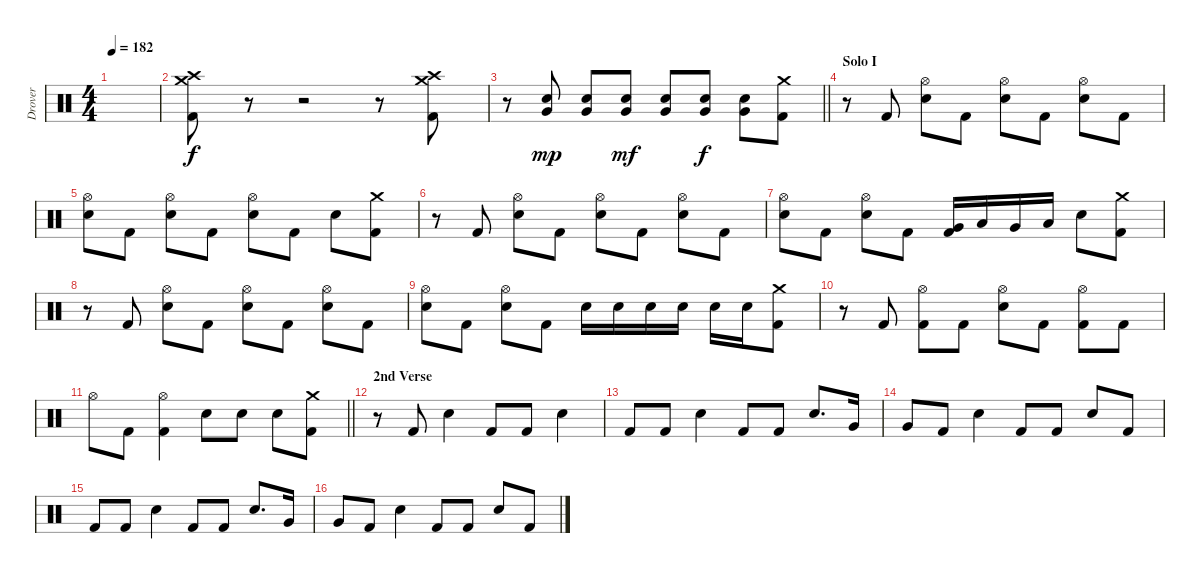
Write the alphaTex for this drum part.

\track ("Drover" "Drover") {instrument percussion}
\staff {score}
\articulation defaults
\ts (4 4)
\tempo 182
\clef neutral
\ks c
|
("Crash medium (hit)" "Crash high (hit)" "Kick (hit) 2").8 r.8 r.2 r.8 ("Crash medium (hit)" "Crash high (hit)" "Kick (hit) 2").8 |
\barLineRight lightlight
r.8 ("Very Low Tom (hit)" "Snare (hit) 2").8{dy mp} ("Very Low Tom (hit)" "Snare (hit) 2").8 ("Very Low Tom (hit)" "Snare (hit) 2").8{dy mf} ("Very Low Tom (hit)" "Snare (hit) 2").8 ("Very Low Tom (hit)" "Snare (hit) 2").8{dy f} ("Very Low Tom (hit)" "Snare (hit) 2").8 ("Crash medium (hit)" "Kick (hit) 2").8 |
\section ("" "Solo I")
r.8 "Kick (hit) 2".8 ("Hi-Hat (open)" "Snare (hit) 2").8 "Kick (hit) 2".8 ("Hi-Hat (open)" "Snare (hit) 2").8 "Kick (hit) 2".8 ("Hi-Hat (open)" "Snare (hit) 2").8 "Kick (hit) 2".8 |
("Hi-Hat (open)" "Snare (hit) 2").8 "Kick (hit) 2".8 ("Hi-Hat (open)" "Snare (hit) 2").8 "Kick (hit) 2".8 ("Hi-Hat (open)" "Snare (hit) 2").8 "Kick (hit) 2".8 "Snare (hit) 2".8 ("Crash medium (hit)" "Kick (hit) 2").8 |
r.8 "Kick (hit) 2".8 ("Hi-Hat (open)" "Snare (hit) 2").8 "Kick (hit) 2".8 ("Hi-Hat (open)" "Snare (hit) 2").8 "Kick (hit) 2".8 ("Hi-Hat (open)" "Snare (hit) 2").8 "Kick (hit) 2".8 |
("Hi-Hat (open)" "Snare (hit) 2").8 "Kick (hit) 2".8 ("Hi-Hat (open)" "Snare (hit) 2").8 "Kick (hit) 2".8 ("Very Low Tom (hit)" "Kick (hit) 2").16 "Low Tom (hit)".16 "Very Low Tom (hit)".16 "Low Tom (hit)".16 "Snare (hit) 2".8 ("Crash medium (hit)" "Kick (hit) 2").8 |
r.8 "Kick (hit) 2".8 ("Hi-Hat (open)" "Snare (hit) 2").8 "Kick (hit) 2".8 ("Hi-Hat (open)" "Snare (hit) 2").8 "Kick (hit) 2".8 ("Hi-Hat (open)" "Snare (hit) 2").8 "Kick (hit) 2".8 |
("Hi-Hat (open)" "Snare (hit) 2").8 "Kick (hit) 2".8 ("Hi-Hat (open)" "Snare (hit) 2").8 "Kick (hit) 2".8 "Snare (hit) 2".16 "Snare (hit) 2".16 "Snare (hit) 2".16 "Snare (hit) 2".16 "Snare (hit) 2".16 "Snare (hit) 2".16 ("Crash medium (hit)" "Kick (hit) 2").8 |
r.8 "Kick (hit) 2".8 ("Hi-Hat (open)" "Kick (hit) 2").8 "Kick (hit) 2".8 ("Hi-Hat (open)" "Snare (hit) 2").8 "Kick (hit) 2".8 ("Hi-Hat (open)" "Kick (hit) 2").8 "Kick (hit) 2".8 |
\barLineRight lightlight "Hi-Hat (open)".8 "Kick (hit) 2".8
("Hi-Hat (open)" "Kick (hit) 2").4 "Snare (hit) 2".8 "Snare (hit) 2".8 "Snare (hit) 2".8 ("Crash medium (hit)" "Kick (hit) 2").8 |
\section ("" "2nd Verse")
r.8 "Kick (hit) 2".8 "Snare (hit) 2".4 "Kick (hit) 2".8 "Kick (hit) 2".8 "Snare (hit) 2".4 |
"Kick (hit) 2".8 "Kick (hit) 2".8 "Snare (hit) 2".4 "Kick (hit) 2".8 "Kick (hit) 2".8 "Snare (hit) 2".8{d} "Very Low Tom (hit)".16 |
"Very Low Tom (hit)".8 "Kick (hit) 2".8 "Snare (hit) 2".4 "Kick (hit) 2".8 "Kick (hit) 2".8 "Snare (hit) 2".8 "Kick (hit) 2".8 |
"Kick (hit) 2".8 "Kick (hit) 2".8 "Snare (hit) 2".4 "Kick (hit) 2".8 "Kick (hit) 2".8 "Snare (hit) 2".8{d} "Very Low Tom (hit)".16 |
"Very Low Tom (hit)".8 "Kick (hit) 2".8 "Snare (hit) 2".4 "Kick (hit) 2".8 "Kick (hit) 2".8 "Snare (hit) 2".8 "Kick (hit) 2".8
